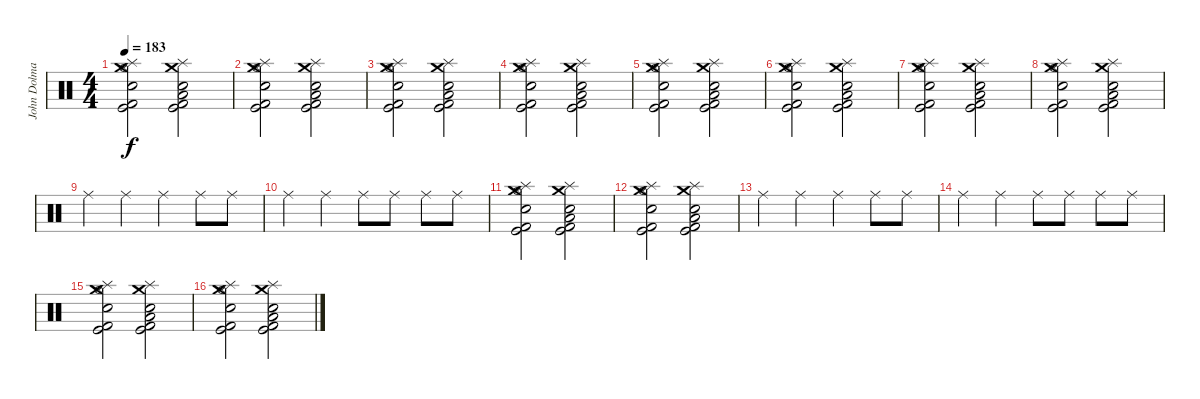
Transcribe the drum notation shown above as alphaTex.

\track ("John Dolmayan" "John Dolma") {instrument percussion}
\staff {score}
\articulation defaults
\ts (4 4)
\tempo 183
\clef neutral
\ks c
("Hi-Hat (open)" "Crash medium (hit)" "Splash (hit)" "Kick (hit)" "Kick (hit) 2" "Electric Snare (hit)").2{dy f} ("Splash (hit)" "Crash medium (hit)" "Kick (hit) 2" "Kick (hit)" "Low Tom (hit)" "Electric Snare (hit)").2 |
("Hi-Hat (open)" "Crash medium (hit)" "Splash (hit)" "Kick (hit)" "Kick (hit) 2" "Electric Snare (hit)").2 ("Splash (hit)" "Crash medium (hit)" "Kick (hit) 2" "Kick (hit)" "Low Tom (hit)" "Electric Snare (hit)").2 |
("Hi-Hat (open)" "Crash medium (hit)" "Splash (hit)" "Kick (hit)" "Kick (hit) 2" "Electric Snare (hit)").2 ("Splash (hit)" "Crash medium (hit)" "Kick (hit) 2" "Kick (hit)" "Low Tom (hit)" "Electric Snare (hit)").2 |
("Hi-Hat (open)" "Crash medium (hit)" "Splash (hit)" "Kick (hit)" "Kick (hit) 2" "Electric Snare (hit)").2 ("Splash (hit)" "Crash medium (hit)" "Kick (hit) 2" "Kick (hit)" "Low Tom (hit)" "Electric Snare (hit)").2 |
("Hi-Hat (open)" "Crash medium (hit)" "Splash (hit)" "Kick (hit)" "Kick (hit) 2" "Electric Snare (hit)").2 ("Splash (hit)" "Crash medium (hit)" "Kick (hit) 2" "Kick (hit)" "Low Tom (hit)" "Electric Snare (hit)").2 |
("Hi-Hat (open)" "Crash medium (hit)" "Splash (hit)" "Kick (hit)" "Kick (hit) 2" "Electric Snare (hit)").2 ("Splash (hit)" "Crash medium (hit)" "Kick (hit) 2" "Kick (hit)" "Low Tom (hit)" "Electric Snare (hit)").2 |
("Hi-Hat (open)" "Crash medium (hit)" "Splash (hit)" "Kick (hit)" "Kick (hit) 2" "Electric Snare (hit)").2 ("Splash (hit)" "Crash medium (hit)" "Kick (hit) 2" "Kick (hit)" "Low Tom (hit)" "Electric Snare (hit)").2 |
("Hi-Hat (open)" "Crash medium (hit)" "Splash (hit)" "Kick (hit)" "Kick (hit) 2" "Electric Snare (hit)").2 ("Splash (hit)" "Crash medium (hit)" "Kick (hit) 2" "Kick (hit)" "Low Tom (hit)" "Electric Snare (hit)").2 |
"Ride (middle)".4 "Ride (middle)".4 "Ride (middle)".4 "Ride (middle)".8 "Ride (middle)".8 |
"Ride (middle)".4 "Ride (middle)".4 "Ride (middle)".8 "Ride (middle)".8 "Ride (middle)".8 "Ride (middle)".8 |
("Hi-Hat (open)" "Crash medium (hit)" "Splash (hit)" "Kick (hit)" "Kick (hit) 2" "Electric Snare (hit)").2 ("Splash (hit)" "Crash medium (hit)" "Kick (hit) 2" "Kick (hit)" "Low Tom (hit)" "Electric Snare (hit)").2 |
("Hi-Hat (open)" "Crash medium (hit)" "Splash (hit)" "Kick (hit)" "Kick (hit) 2" "Electric Snare (hit)").2 ("Splash (hit)" "Crash medium (hit)" "Kick (hit) 2" "Kick (hit)" "Low Tom (hit)" "Electric Snare (hit)").2 |
"Ride (middle)".4 "Ride (middle)".4 "Ride (middle)".4 "Ride (middle)".8 "Ride (middle)".8 |
"Ride (middle)".4 "Ride (middle)".4 "Ride (middle)".8 "Ride (middle)".8 "Ride (middle)".8 "Ride (middle)".8 |
("Hi-Hat (open)" "Crash medium (hit)" "Splash (hit)" "Kick (hit)" "Kick (hit) 2" "Electric Snare (hit)").2 ("Splash (hit)" "Crash medium (hit)" "Kick (hit) 2" "Kick (hit)" "Low Tom (hit)" "Electric Snare (hit)").2 |
("Hi-Hat (open)" "Crash medium (hit)" "Splash (hit)" "Kick (hit)" "Kick (hit) 2" "Electric Snare (hit)").2 ("Splash (hit)" "Crash medium (hit)" "Kick (hit) 2" "Kick (hit)" "Low Tom (hit)" "Electric Snare (hit)").2
